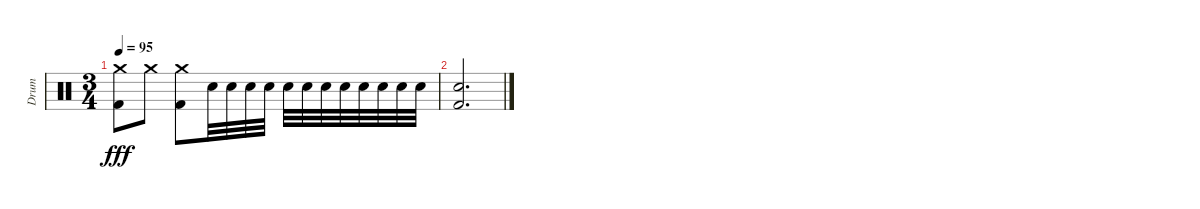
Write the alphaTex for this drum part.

\track ("Drum" "Drum") {instrument percussion}
\staff {score}
\articulation defaults
\ts (3 4)
\tempo 95
\clef neutral
\ks c
("Crash medium (hit)" "Kick (hit) 2").8{dy fff} "Crash medium (hit)".8 ("Crash medium (hit)" "Kick (hit) 2").8 "Electric Snare (hit)".32 "Electric Snare (hit)".32 "Electric Snare (hit)".32 "Electric Snare (hit)".32 "Electric Snare (hit)".32 "Electric Snare (hit)".32 "Electric Snare (hit)".32 "Electric Snare (hit)".32 "Electric Snare (hit)".32 "Electric Snare (hit)".32 "Electric Snare (hit)".32 "Electric Snare (hit)".32 |
("Electric Snare (hit)" "Kick (hit) 2").2{d}
